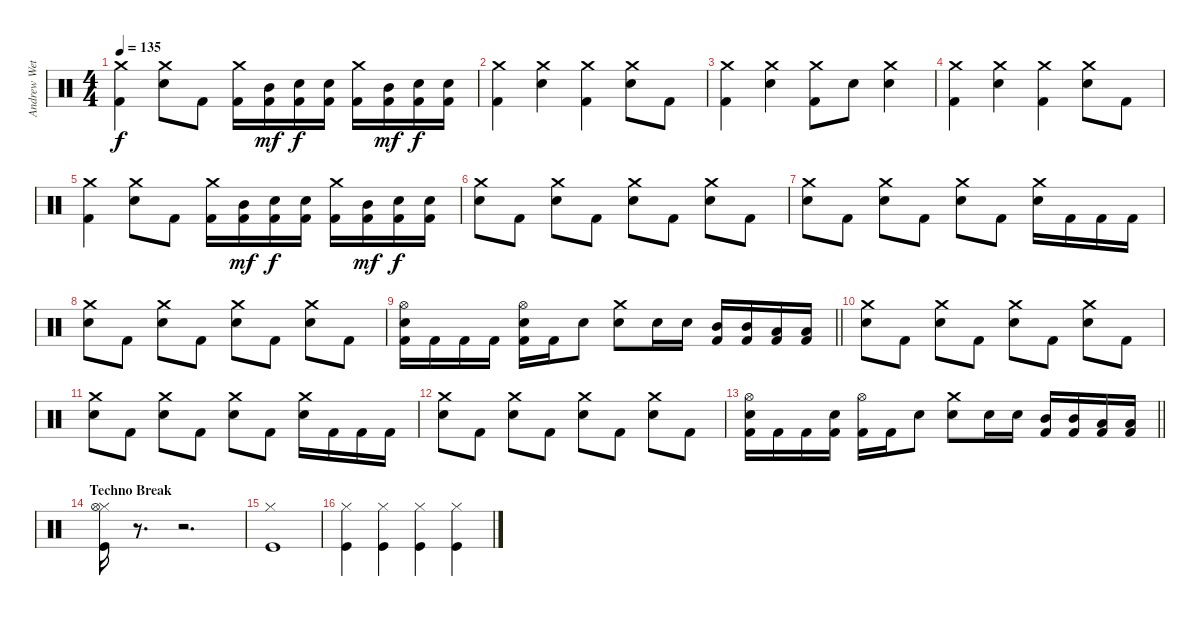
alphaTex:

\track ("Andrew Wetzel" "Andrew Wet") {instrument percussion}
\staff
\articulation defaults
\ts (4 4)
\tempo 135
\clef neutral
\ks c
("Crash medium (hit)" "Kick (hit) 2").4{dy f} ("Crash medium (hit)" "Snare (hit) 2").8 "Kick (hit) 2".8 ("Crash medium (hit)" "Kick (hit) 2").16 ("Mid Tom (hit)" "Kick (hit) 2").16{dy mf} ("Snare (hit) 2" "Kick (hit) 2").16{dy f} ("Snare (hit) 2" "Kick (hit) 2").16 ("Crash medium (hit)" "Kick (hit) 2").16 ("Mid Tom (hit)" "Kick (hit) 2").16{dy mf} ("Snare (hit) 2" "Kick (hit) 2").16{dy f} ("Snare (hit) 2" "Kick (hit) 2").16 |
("Crash medium (hit)" "Kick (hit) 2").4 ("Crash medium (hit)" "Snare (hit) 2").4 ("Crash medium (hit)" "Kick (hit) 2").4 ("Crash medium (hit)" "Snare (hit) 2").8 "Kick (hit) 2".8 |
("Crash medium (hit)" "Kick (hit) 2").4 ("Crash medium (hit)" "Snare (hit) 2").4 ("Crash medium (hit)" "Kick (hit) 2").8 "Snare (hit) 2".8 ("Crash medium (hit)" "Snare (hit) 2").4 |
("Crash medium (hit)" "Kick (hit) 2").4 ("Crash medium (hit)" "Snare (hit) 2").4 ("Crash medium (hit)" "Kick (hit) 2").4 ("Crash medium (hit)" "Snare (hit) 2").8 "Kick (hit) 2".8 |
("Crash medium (hit)" "Kick (hit) 2").4 ("Crash medium (hit)" "Snare (hit) 2").8 "Kick (hit) 2".8 ("Crash medium (hit)" "Kick (hit) 2").16 ("Mid Tom (hit)" "Kick (hit) 2").16{dy mf} ("Snare (hit) 2" "Kick (hit) 2").16{dy f} ("Snare (hit) 2" "Kick (hit) 2").16 ("Crash medium (hit)" "Kick (hit) 2").16 ("Mid Tom (hit)" "Kick (hit) 2").16{dy mf} ("Snare (hit) 2" "Kick (hit) 2").16{dy f} ("Snare (hit) 2" "Kick (hit) 2").16 |
("Crash medium (hit)" "Snare (hit) 2").8 "Kick (hit) 2".8 ("Crash medium (hit)" "Snare (hit) 2").8 "Kick (hit) 2".8 ("Crash medium (hit)" "Snare (hit) 2").8 "Kick (hit) 2".8 ("Crash medium (hit)" "Snare (hit) 2").8 "Kick (hit) 2".8 |
("Crash medium (hit)" "Snare (hit) 2").8 "Kick (hit) 2".8 ("Crash medium (hit)" "Snare (hit) 2").8 "Kick (hit) 2".8 ("Crash medium (hit)" "Snare (hit) 2").8 "Kick (hit) 2".8 ("Crash medium (hit)" "Snare (hit) 2").16 "Kick (hit) 2".16 "Kick (hit) 2".16 "Kick (hit) 2".16 |
("Crash medium (hit)" "Snare (hit) 2").8 "Kick (hit) 2".8 ("Crash medium (hit)" "Snare (hit) 2").8 "Kick (hit) 2".8 ("Crash medium (hit)" "Snare (hit) 2").8 "Kick (hit) 2".8 ("Crash medium (hit)" "Snare (hit) 2").8 "Kick (hit) 2".8 |
\barLineRight lightlight
("Hi-Hat (open)" "Snare (hit) 2" "Kick (hit) 2").16 "Kick (hit) 2".16 "Kick (hit) 2".16 "Kick (hit) 2".16 ("Hi-Hat (open)" "Snare (hit) 2" "Kick (hit) 2").16 "Kick (hit) 2".16 "Snare (hit) 2".8 ("Crash medium (hit)" "Snare (hit) 2").8 "Snare (hit) 2".16 "Snare (hit) 2".16 ("Mid Tom (hit)" "Kick (hit) 2").16 ("Mid Tom (hit)" "Kick (hit) 2").16 ("Low Tom (hit)" "Kick (hit) 2").16 ("Low Tom (hit)" "Kick (hit) 2").16 |
("Crash medium (hit)" "Snare (hit) 2").8 "Kick (hit) 2".8 ("Crash medium (hit)" "Snare (hit) 2").8 "Kick (hit) 2".8 ("Crash medium (hit)" "Snare (hit) 2").8 "Kick (hit) 2".8 ("Crash medium (hit)" "Snare (hit) 2").8 "Kick (hit) 2".8 |
("Crash medium (hit)" "Snare (hit) 2").8 "Kick (hit) 2".8 ("Crash medium (hit)" "Snare (hit) 2").8 "Kick (hit) 2".8 ("Crash medium (hit)" "Snare (hit) 2").8 "Kick (hit) 2".8 ("Crash medium (hit)" "Snare (hit) 2").16 "Kick (hit) 2".16 "Kick (hit) 2".16 "Kick (hit) 2".16 |
("Crash medium (hit)" "Snare (hit) 2").8 "Kick (hit) 2".8 ("Crash medium (hit)" "Snare (hit) 2").8 "Kick (hit) 2".8 ("Crash medium (hit)" "Snare (hit) 2").8 "Kick (hit) 2".8 ("Crash medium (hit)" "Snare (hit) 2").8 "Kick (hit) 2".8 |
\barLineRight lightlight
("Hi-Hat (open)" "Snare (hit) 2" "Kick (hit) 2").16 "Kick (hit) 2".16 "Kick (hit) 2".16 ("Snare (hit) 2" "Kick (hit) 2").16 ("Hi-Hat (open)" "Kick (hit) 2").16 "Kick (hit) 2".16 "Snare (hit) 2".8 ("Crash medium (hit)" "Snare (hit) 2").8 "Snare (hit) 2".16 "Snare (hit) 2".16 ("Mid Tom (hit)" "Kick (hit) 2").16 ("Mid Tom (hit)" "Kick (hit) 2").16 ("Low Tom (hit)" "Kick (hit) 2").16 ("Low Tom (hit)" "Kick (hit) 2").16 |
\section ("" "Techno Break")
("Hi-Hat (closed)" "Hi-Hat (open)" "Kick (hit)").16 r.8{d volume 0} r.2{d} |
("Hi-Hat (closed)" "Kick (hit)").1{volume 13} |
("Hi-Hat (closed)" "Kick (hit)").4 ("Hi-Hat (closed)" "Kick (hit)").4 ("Hi-Hat (closed)" "Kick (hit)").4 ("Hi-Hat (closed)" "Kick (hit)").4
